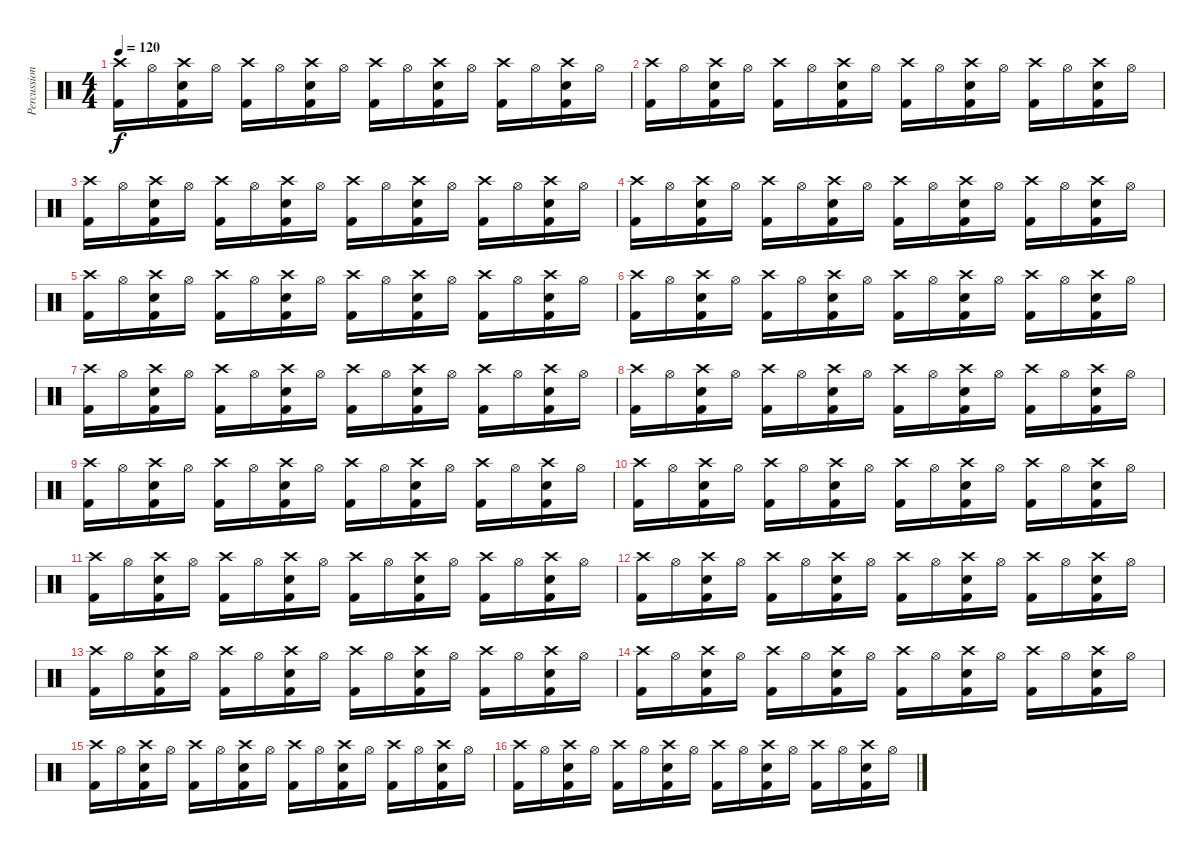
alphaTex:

\track ("Percussion" "Percussion") {instrument percussion}
\staff {score}
\articulation defaults
\ts (4 4)
\tempo 120
\clef neutral
\ks c
("Crash high (hit)" "Kick (hit) 2").16{dy f} "Hi-Hat (open)".16 ("Crash high (hit)" "Electric Snare (hit)" "Kick (hit) 2").16 "Hi-Hat (open)".16 ("Crash high (hit)" "Kick (hit) 2").16 "Hi-Hat (open)".16 ("Crash high (hit)" "Electric Snare (hit)" "Kick (hit) 2").16 "Hi-Hat (open)".16 ("Crash high (hit)" "Kick (hit) 2").16 "Hi-Hat (open)".16 ("Crash high (hit)" "Electric Snare (hit)" "Kick (hit) 2").16 "Hi-Hat (open)".16 ("Crash high (hit)" "Kick (hit) 2").16 "Hi-Hat (open)".16 ("Crash high (hit)" "Electric Snare (hit)" "Kick (hit) 2").16 "Hi-Hat (open)".16 |
("Crash high (hit)" "Kick (hit) 2").16 "Hi-Hat (open)".16 ("Crash high (hit)" "Electric Snare (hit)" "Kick (hit) 2").16 "Hi-Hat (open)".16 ("Crash high (hit)" "Kick (hit) 2").16 "Hi-Hat (open)".16 ("Crash high (hit)" "Electric Snare (hit)" "Kick (hit) 2").16 "Hi-Hat (open)".16 ("Crash high (hit)" "Kick (hit) 2").16 "Hi-Hat (open)".16 ("Crash high (hit)" "Electric Snare (hit)" "Kick (hit) 2").16 "Hi-Hat (open)".16 ("Crash high (hit)" "Kick (hit) 2").16 "Hi-Hat (open)".16 ("Crash high (hit)" "Electric Snare (hit)" "Kick (hit) 2").16 "Hi-Hat (open)".16 |
("Crash high (hit)" "Kick (hit) 2").16 "Hi-Hat (open)".16 ("Crash high (hit)" "Electric Snare (hit)" "Kick (hit) 2").16 "Hi-Hat (open)".16 ("Crash high (hit)" "Kick (hit) 2").16 "Hi-Hat (open)".16 ("Crash high (hit)" "Electric Snare (hit)" "Kick (hit) 2").16 "Hi-Hat (open)".16 ("Crash high (hit)" "Kick (hit) 2").16 "Hi-Hat (open)".16 ("Crash high (hit)" "Electric Snare (hit)" "Kick (hit) 2").16 "Hi-Hat (open)".16 ("Crash high (hit)" "Kick (hit) 2").16 "Hi-Hat (open)".16 ("Crash high (hit)" "Electric Snare (hit)" "Kick (hit) 2").16 "Hi-Hat (open)".16 |
("Crash high (hit)" "Kick (hit) 2").16 "Hi-Hat (open)".16 ("Crash high (hit)" "Electric Snare (hit)" "Kick (hit) 2").16 "Hi-Hat (open)".16 ("Crash high (hit)" "Kick (hit) 2").16 "Hi-Hat (open)".16 ("Crash high (hit)" "Electric Snare (hit)" "Kick (hit) 2").16 "Hi-Hat (open)".16 ("Crash high (hit)" "Kick (hit) 2").16 "Hi-Hat (open)".16 ("Crash high (hit)" "Electric Snare (hit)" "Kick (hit) 2").16 "Hi-Hat (open)".16 ("Crash high (hit)" "Kick (hit) 2").16 "Hi-Hat (open)".16 ("Crash high (hit)" "Electric Snare (hit)" "Kick (hit) 2").16 "Hi-Hat (open)".16 |
("Crash high (hit)" "Kick (hit) 2").16 "Hi-Hat (open)".16 ("Crash high (hit)" "Electric Snare (hit)" "Kick (hit) 2").16 "Hi-Hat (open)".16 ("Crash high (hit)" "Kick (hit) 2").16 "Hi-Hat (open)".16 ("Crash high (hit)" "Electric Snare (hit)" "Kick (hit) 2").16 "Hi-Hat (open)".16 ("Crash high (hit)" "Kick (hit) 2").16 "Hi-Hat (open)".16 ("Crash high (hit)" "Electric Snare (hit)" "Kick (hit) 2").16 "Hi-Hat (open)".16 ("Crash high (hit)" "Kick (hit) 2").16 "Hi-Hat (open)".16 ("Crash high (hit)" "Electric Snare (hit)" "Kick (hit) 2").16 "Hi-Hat (open)".16 |
("Crash high (hit)" "Kick (hit) 2").16 "Hi-Hat (open)".16 ("Crash high (hit)" "Electric Snare (hit)" "Kick (hit) 2").16 "Hi-Hat (open)".16 ("Crash high (hit)" "Kick (hit) 2").16 "Hi-Hat (open)".16 ("Crash high (hit)" "Electric Snare (hit)" "Kick (hit) 2").16 "Hi-Hat (open)".16 ("Crash high (hit)" "Kick (hit) 2").16 "Hi-Hat (open)".16 ("Crash high (hit)" "Electric Snare (hit)" "Kick (hit) 2").16 "Hi-Hat (open)".16 ("Crash high (hit)" "Kick (hit) 2").16 "Hi-Hat (open)".16 ("Crash high (hit)" "Electric Snare (hit)" "Kick (hit) 2").16 "Hi-Hat (open)".16 |
("Crash high (hit)" "Kick (hit) 2").16 "Hi-Hat (open)".16 ("Crash high (hit)" "Electric Snare (hit)" "Kick (hit) 2").16 "Hi-Hat (open)".16 ("Crash high (hit)" "Kick (hit) 2").16 "Hi-Hat (open)".16 ("Crash high (hit)" "Electric Snare (hit)" "Kick (hit) 2").16 "Hi-Hat (open)".16 ("Crash high (hit)" "Kick (hit) 2").16 "Hi-Hat (open)".16 ("Crash high (hit)" "Electric Snare (hit)" "Kick (hit) 2").16 "Hi-Hat (open)".16 ("Crash high (hit)" "Kick (hit) 2").16 "Hi-Hat (open)".16 ("Crash high (hit)" "Electric Snare (hit)" "Kick (hit) 2").16 "Hi-Hat (open)".16 |
("Crash high (hit)" "Kick (hit) 2").16 "Hi-Hat (open)".16 ("Crash high (hit)" "Electric Snare (hit)" "Kick (hit) 2").16 "Hi-Hat (open)".16 ("Crash high (hit)" "Kick (hit) 2").16 "Hi-Hat (open)".16 ("Crash high (hit)" "Electric Snare (hit)" "Kick (hit) 2").16 "Hi-Hat (open)".16 ("Crash high (hit)" "Kick (hit) 2").16 "Hi-Hat (open)".16 ("Crash high (hit)" "Electric Snare (hit)" "Kick (hit) 2").16 "Hi-Hat (open)".16 ("Crash high (hit)" "Kick (hit) 2").16 "Hi-Hat (open)".16 ("Crash high (hit)" "Electric Snare (hit)" "Kick (hit) 2").16 "Hi-Hat (open)".16 |
("Crash high (hit)" "Kick (hit) 2").16 "Hi-Hat (open)".16 ("Crash high (hit)" "Electric Snare (hit)" "Kick (hit) 2").16 "Hi-Hat (open)".16 ("Crash high (hit)" "Kick (hit) 2").16 "Hi-Hat (open)".16 ("Crash high (hit)" "Electric Snare (hit)" "Kick (hit) 2").16 "Hi-Hat (open)".16 ("Crash high (hit)" "Kick (hit) 2").16 "Hi-Hat (open)".16 ("Crash high (hit)" "Electric Snare (hit)" "Kick (hit) 2").16 "Hi-Hat (open)".16 ("Crash high (hit)" "Kick (hit) 2").16 "Hi-Hat (open)".16 ("Crash high (hit)" "Electric Snare (hit)" "Kick (hit) 2").16 "Hi-Hat (open)".16 |
("Crash high (hit)" "Kick (hit) 2").16 "Hi-Hat (open)".16 ("Crash high (hit)" "Electric Snare (hit)" "Kick (hit) 2").16 "Hi-Hat (open)".16 ("Crash high (hit)" "Kick (hit) 2").16 "Hi-Hat (open)".16 ("Crash high (hit)" "Electric Snare (hit)" "Kick (hit) 2").16 "Hi-Hat (open)".16 ("Crash high (hit)" "Kick (hit) 2").16 "Hi-Hat (open)".16 ("Crash high (hit)" "Electric Snare (hit)" "Kick (hit) 2").16 "Hi-Hat (open)".16 ("Crash high (hit)" "Kick (hit) 2").16 "Hi-Hat (open)".16 ("Crash high (hit)" "Electric Snare (hit)" "Kick (hit) 2").16 "Hi-Hat (open)".16 |
("Crash high (hit)" "Kick (hit) 2").16 "Hi-Hat (open)".16 ("Crash high (hit)" "Electric Snare (hit)" "Kick (hit) 2").16 "Hi-Hat (open)".16 ("Crash high (hit)" "Kick (hit) 2").16 "Hi-Hat (open)".16 ("Crash high (hit)" "Electric Snare (hit)" "Kick (hit) 2").16 "Hi-Hat (open)".16 ("Crash high (hit)" "Kick (hit) 2").16 "Hi-Hat (open)".16 ("Crash high (hit)" "Electric Snare (hit)" "Kick (hit) 2").16 "Hi-Hat (open)".16 ("Crash high (hit)" "Kick (hit) 2").16 "Hi-Hat (open)".16 ("Crash high (hit)" "Electric Snare (hit)" "Kick (hit) 2").16 "Hi-Hat (open)".16 |
("Crash high (hit)" "Kick (hit) 2").16 "Hi-Hat (open)".16 ("Crash high (hit)" "Electric Snare (hit)" "Kick (hit) 2").16 "Hi-Hat (open)".16 ("Crash high (hit)" "Kick (hit) 2").16 "Hi-Hat (open)".16 ("Crash high (hit)" "Electric Snare (hit)" "Kick (hit) 2").16 "Hi-Hat (open)".16 ("Crash high (hit)" "Kick (hit) 2").16 "Hi-Hat (open)".16 ("Crash high (hit)" "Electric Snare (hit)" "Kick (hit) 2").16 "Hi-Hat (open)".16 ("Crash high (hit)" "Kick (hit) 2").16 "Hi-Hat (open)".16 ("Crash high (hit)" "Electric Snare (hit)" "Kick (hit) 2").16 "Hi-Hat (open)".16 |
("Crash high (hit)" "Kick (hit) 2").16 "Hi-Hat (open)".16 ("Crash high (hit)" "Electric Snare (hit)" "Kick (hit) 2").16 "Hi-Hat (open)".16 ("Crash high (hit)" "Kick (hit) 2").16 "Hi-Hat (open)".16 ("Crash high (hit)" "Electric Snare (hit)" "Kick (hit) 2").16 "Hi-Hat (open)".16 ("Crash high (hit)" "Kick (hit) 2").16 "Hi-Hat (open)".16 ("Crash high (hit)" "Electric Snare (hit)" "Kick (hit) 2").16 "Hi-Hat (open)".16 ("Crash high (hit)" "Kick (hit) 2").16 "Hi-Hat (open)".16 ("Crash high (hit)" "Electric Snare (hit)" "Kick (hit) 2").16 "Hi-Hat (open)".16 |
("Crash high (hit)" "Kick (hit) 2").16 "Hi-Hat (open)".16 ("Crash high (hit)" "Electric Snare (hit)" "Kick (hit) 2").16 "Hi-Hat (open)".16 ("Crash high (hit)" "Kick (hit) 2").16 "Hi-Hat (open)".16 ("Crash high (hit)" "Electric Snare (hit)" "Kick (hit) 2").16 "Hi-Hat (open)".16 ("Crash high (hit)" "Kick (hit) 2").16 "Hi-Hat (open)".16 ("Crash high (hit)" "Electric Snare (hit)" "Kick (hit) 2").16 "Hi-Hat (open)".16 ("Crash high (hit)" "Kick (hit) 2").16 "Hi-Hat (open)".16 ("Crash high (hit)" "Electric Snare (hit)" "Kick (hit) 2").16 "Hi-Hat (open)".16 |
("Crash high (hit)" "Kick (hit) 2").16 "Hi-Hat (open)".16 ("Crash high (hit)" "Electric Snare (hit)" "Kick (hit) 2").16 "Hi-Hat (open)".16 ("Crash high (hit)" "Kick (hit) 2").16 "Hi-Hat (open)".16 ("Crash high (hit)" "Electric Snare (hit)" "Kick (hit) 2").16 "Hi-Hat (open)".16 ("Crash high (hit)" "Kick (hit) 2").16 "Hi-Hat (open)".16 ("Crash high (hit)" "Electric Snare (hit)" "Kick (hit) 2").16 "Hi-Hat (open)".16 ("Crash high (hit)" "Kick (hit) 2").16 "Hi-Hat (open)".16 ("Crash high (hit)" "Electric Snare (hit)" "Kick (hit) 2").16 "Hi-Hat (open)".16 |
("Crash high (hit)" "Kick (hit) 2").16 "Hi-Hat (open)".16 ("Crash high (hit)" "Electric Snare (hit)" "Kick (hit) 2").16 "Hi-Hat (open)".16 ("Crash high (hit)" "Kick (hit) 2").16 "Hi-Hat (open)".16 ("Crash high (hit)" "Electric Snare (hit)" "Kick (hit) 2").16 "Hi-Hat (open)".16 ("Crash high (hit)" "Kick (hit) 2").16 "Hi-Hat (open)".16 ("Crash high (hit)" "Electric Snare (hit)" "Kick (hit) 2").16 "Hi-Hat (open)".16 ("Crash high (hit)" "Kick (hit) 2").16 "Hi-Hat (open)".16 ("Crash high (hit)" "Electric Snare (hit)" "Kick (hit) 2").16 "Hi-Hat (open)".16
